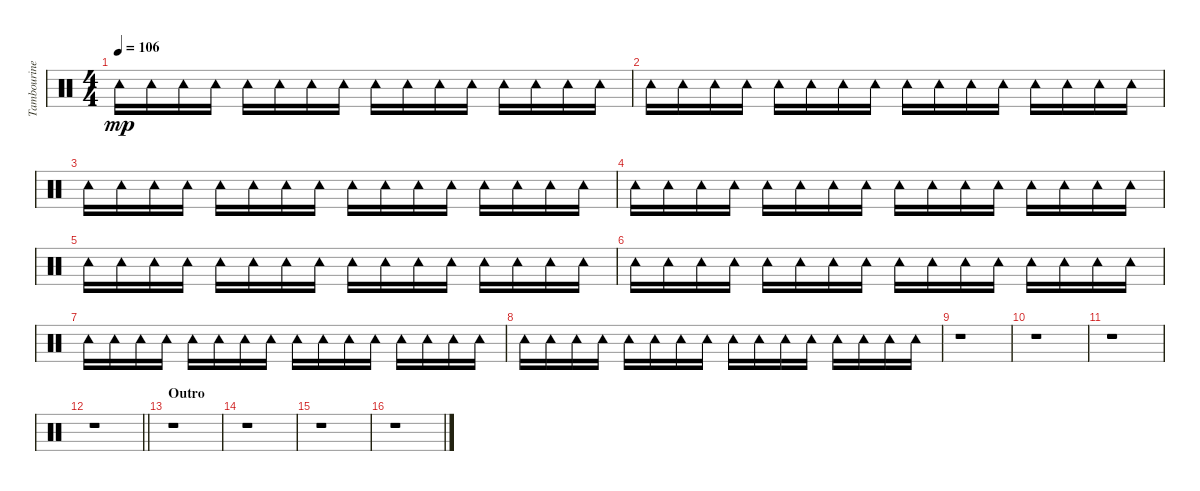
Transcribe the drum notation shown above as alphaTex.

\track ("Tambourine" "Tambourine") {instrument percussion}
\staff {score}
\articulation defaults
\ts (4 4)
\tempo 106
\clef neutral
\ks c "Tambourine (hit)".16{dy mp} "Tambourine (hit)".16 "Tambourine (hit)".16 "Tambourine (hit)".16 "Tambourine (hit)".16 "Tambourine (hit)".16 "Tambourine (hit)".16 "Tambourine (hit)".16 "Tambourine (hit)".16 "Tambourine (hit)".16 "Tambourine (hit)".16 "Tambourine (hit)".16 "Tambourine (hit)".16 "Tambourine (hit)".16 "Tambourine (hit)".16 "Tambourine (hit)".16
|
"Tambourine (hit)".16 "Tambourine (hit)".16 "Tambourine (hit)".16 "Tambourine (hit)".16 "Tambourine (hit)".16 "Tambourine (hit)".16 "Tambourine (hit)".16 "Tambourine (hit)".16 "Tambourine (hit)".16 "Tambourine (hit)".16 "Tambourine (hit)".16 "Tambourine (hit)".16 "Tambourine (hit)".16 "Tambourine (hit)".16 "Tambourine (hit)".16 "Tambourine (hit)".16 |
"Tambourine (hit)".16 "Tambourine (hit)".16 "Tambourine (hit)".16 "Tambourine (hit)".16 "Tambourine (hit)".16 "Tambourine (hit)".16 "Tambourine (hit)".16 "Tambourine (hit)".16 "Tambourine (hit)".16 "Tambourine (hit)".16 "Tambourine (hit)".16 "Tambourine (hit)".16 "Tambourine (hit)".16 "Tambourine (hit)".16 "Tambourine (hit)".16 "Tambourine (hit)".16 |
"Tambourine (hit)".16 "Tambourine (hit)".16 "Tambourine (hit)".16 "Tambourine (hit)".16 "Tambourine (hit)".16 "Tambourine (hit)".16 "Tambourine (hit)".16 "Tambourine (hit)".16 "Tambourine (hit)".16 "Tambourine (hit)".16 "Tambourine (hit)".16 "Tambourine (hit)".16 "Tambourine (hit)".16 "Tambourine (hit)".16 "Tambourine (hit)".16 "Tambourine (hit)".16 |
"Tambourine (hit)".16 "Tambourine (hit)".16 "Tambourine (hit)".16 "Tambourine (hit)".16 "Tambourine (hit)".16 "Tambourine (hit)".16 "Tambourine (hit)".16 "Tambourine (hit)".16 "Tambourine (hit)".16 "Tambourine (hit)".16 "Tambourine (hit)".16 "Tambourine (hit)".16 "Tambourine (hit)".16 "Tambourine (hit)".16 "Tambourine (hit)".16 "Tambourine (hit)".16 |
"Tambourine (hit)".16 "Tambourine (hit)".16 "Tambourine (hit)".16 "Tambourine (hit)".16 "Tambourine (hit)".16 "Tambourine (hit)".16 "Tambourine (hit)".16 "Tambourine (hit)".16 "Tambourine (hit)".16 "Tambourine (hit)".16 "Tambourine (hit)".16 "Tambourine (hit)".16 "Tambourine (hit)".16 "Tambourine (hit)".16 "Tambourine (hit)".16 "Tambourine (hit)".16 |
"Tambourine (hit)".16 "Tambourine (hit)".16 "Tambourine (hit)".16 "Tambourine (hit)".16 "Tambourine (hit)".16 "Tambourine (hit)".16 "Tambourine (hit)".16 "Tambourine (hit)".16 "Tambourine (hit)".16 "Tambourine (hit)".16 "Tambourine (hit)".16 "Tambourine (hit)".16 "Tambourine (hit)".16 "Tambourine (hit)".16 "Tambourine (hit)".16 "Tambourine (hit)".16 |
"Tambourine (hit)".16 "Tambourine (hit)".16 "Tambourine (hit)".16 "Tambourine (hit)".16 "Tambourine (hit)".16 "Tambourine (hit)".16 "Tambourine (hit)".16 "Tambourine (hit)".16 "Tambourine (hit)".16 "Tambourine (hit)".16 "Tambourine (hit)".16 "Tambourine (hit)".16 "Tambourine (hit)".16 "Tambourine (hit)".16 "Tambourine (hit)".16 "Tambourine (hit)".16 |
r.1 |
r.1 |
r.1 |
\barLineRight lightlight
r.1 |
\section ("" "Outro")
r.1 |
r.1 |
r.1 |
r.1
